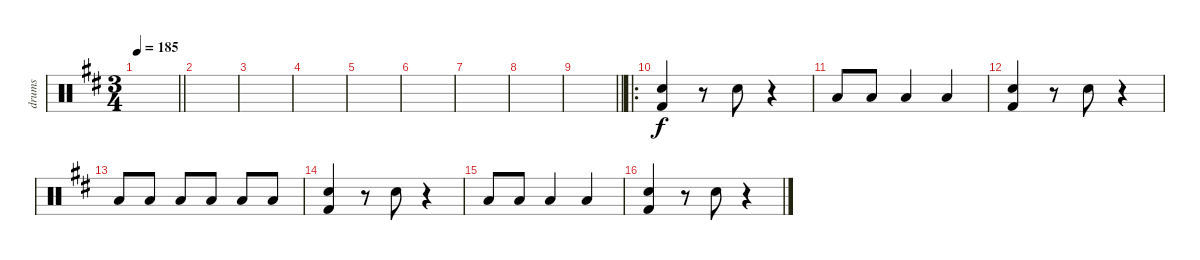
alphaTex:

\track ("drums" "drums") {instrument percussion}
\staff {score}
\articulation defaults
\ts (3 4)
\tempo 185
\clef neutral
\barLineRight lightlight
\ks d
|
|
|
|
|
|
|
|
\barLineRight lightlight
|
\ro
("Kick (hit) 2" "Electric Snare (hit)").4 r.8 "Electric Snare (hit)".8 r.4 |
"Low Tom (hit)".8 "Low Tom (hit)".8 "Low Tom (hit)".4 "Low Tom (hit)".4 |
("Kick (hit) 2" "Electric Snare (hit)").4 r.8 "Electric Snare (hit)".8 r.4 |
"Low Tom (hit)".8 "Low Tom (hit)".8 "Low Tom (hit)".8 "Low Tom (hit)".8 "Low Tom (hit)".8 "Low Tom (hit)".8 |
("Kick (hit) 2" "Electric Snare (hit)").4 r.8 "Electric Snare (hit)".8 r.4 |
"Low Tom (hit)".8 "Low Tom (hit)".8 "Low Tom (hit)".4 "Low Tom (hit)".4 |
("Kick (hit) 2" "Electric Snare (hit)").4 r.8 "Electric Snare (hit)".8 r.4
